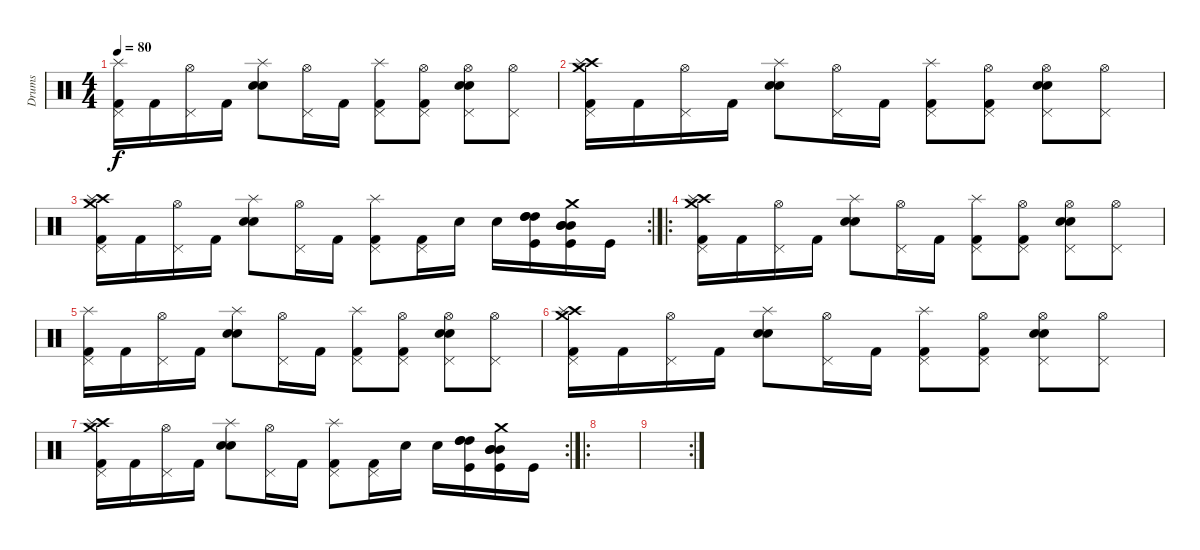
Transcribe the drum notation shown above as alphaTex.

\track ("Drums" "Drums") {instrument percussion}
\staff {score}
\articulation defaults
\ts (4 4)
\tempo 80
\clef neutral
\ks c
("Kick (hit) 2" "Pedal Hi-Hat (hit)" "Splash (hit)").16{dy f} "Kick (hit) 2".16 ("Pedal Hi-Hat (hit)" "Hi-Hat (open)").16 "Kick (hit) 2".16 ("Snare (hit) 2" "Electric Snare (hit)" "Splash (hit)").8 ("Pedal Hi-Hat (hit)" "Hi-Hat (open)").16 "Kick (hit) 2".16 ("Kick (hit) 2" "Pedal Hi-Hat (hit)" "Splash (hit)").8 ("Kick (hit) 2" "Pedal Hi-Hat (hit)" "Hi-Hat (open)").8 ("Snare (hit) 2" "Electric Snare (hit)" "Pedal Hi-Hat (hit)" "Hi-Hat (open)").8 ("Pedal Hi-Hat (hit)" "Hi-Hat (open)").8 |
("Kick (hit) 2" "Crash high (hit)" "Pedal Hi-Hat (hit)" "Splash (hit)" "Crash medium (hit)").16 "Kick (hit) 2".16 ("Pedal Hi-Hat (hit)" "Hi-Hat (open)").16 "Kick (hit) 2".16 ("Snare (hit) 2" "Electric Snare (hit)" "Splash (hit)").8 ("Pedal Hi-Hat (hit)" "Hi-Hat (open)").16 "Kick (hit) 2".16 ("Kick (hit) 2" "Pedal Hi-Hat (hit)" "Splash (hit)").8 ("Kick (hit) 2" "Pedal Hi-Hat (hit)" "Hi-Hat (open)").8 ("Snare (hit) 2" "Electric Snare (hit)" "Pedal Hi-Hat (hit)" "Hi-Hat (open)").8 ("Pedal Hi-Hat (hit)" "Hi-Hat (open)").8 |
\rc 2
("Kick (hit) 2" "Crash high (hit)" "Pedal Hi-Hat (hit)" "Splash (hit)" "Crash medium (hit)").16 "Kick (hit) 2".16 ("Pedal Hi-Hat (hit)" "Hi-Hat (open)").16 "Kick (hit) 2".16 ("Snare (hit) 2" "Electric Snare (hit)" "Splash (hit)").8 ("Pedal Hi-Hat (hit)" "Hi-Hat (open)").16 "Kick (hit) 2".16 ("Kick (hit) 2" "Pedal Hi-Hat (hit)" "Splash (hit)").8 ("Kick (hit) 2" "Pedal Hi-Hat (hit)").16 "Electric Snare (hit)".16 "Electric Snare (hit)".16 ("Kick (hit)" "High Tom (hit)" "High Tom (hit)" "High Tom (hit)").16 ("Kick (hit)" "Mid Tom (hit)" "Mid Tom (hit)" "Mid Tom (hit)" "Crash medium (hit)").16 "Kick (hit)".16 |
\ro
("Kick (hit) 2" "Crash high (hit)" "Pedal Hi-Hat (hit)" "Splash (hit)" "Crash medium (hit)").16 "Kick (hit) 2".16 ("Pedal Hi-Hat (hit)" "Hi-Hat (open)").16 "Kick (hit) 2".16 ("Snare (hit) 2" "Electric Snare (hit)" "Splash (hit)").8 ("Pedal Hi-Hat (hit)" "Hi-Hat (open)").16 "Kick (hit) 2".16 ("Kick (hit) 2" "Pedal Hi-Hat (hit)" "Splash (hit)").8 ("Kick (hit) 2" "Pedal Hi-Hat (hit)" "Hi-Hat (open)").8 ("Snare (hit) 2" "Electric Snare (hit)" "Pedal Hi-Hat (hit)" "Hi-Hat (open)").8 ("Pedal Hi-Hat (hit)" "Hi-Hat (open)").8 |
("Kick (hit) 2" "Pedal Hi-Hat (hit)" "Splash (hit)").16 "Kick (hit) 2".16 ("Pedal Hi-Hat (hit)" "Hi-Hat (open)").16 "Kick (hit) 2".16 ("Snare (hit) 2" "Electric Snare (hit)" "Splash (hit)").8 ("Pedal Hi-Hat (hit)" "Hi-Hat (open)").16 "Kick (hit) 2".16 ("Kick (hit) 2" "Pedal Hi-Hat (hit)" "Splash (hit)").8 ("Kick (hit) 2" "Pedal Hi-Hat (hit)" "Hi-Hat (open)").8 ("Snare (hit) 2" "Electric Snare (hit)" "Pedal Hi-Hat (hit)" "Hi-Hat (open)").8 ("Pedal Hi-Hat (hit)" "Hi-Hat (open)").8 |
("Kick (hit) 2" "Crash high (hit)" "Pedal Hi-Hat (hit)" "Splash (hit)" "Crash medium (hit)").16 "Kick (hit) 2".16 ("Pedal Hi-Hat (hit)" "Hi-Hat (open)").16 "Kick (hit) 2".16 ("Snare (hit) 2" "Electric Snare (hit)" "Splash (hit)").8 ("Pedal Hi-Hat (hit)" "Hi-Hat (open)").16 "Kick (hit) 2".16 ("Kick (hit) 2" "Pedal Hi-Hat (hit)" "Splash (hit)").8 ("Kick (hit) 2" "Pedal Hi-Hat (hit)" "Hi-Hat (open)").8 ("Snare (hit) 2" "Electric Snare (hit)" "Pedal Hi-Hat (hit)" "Hi-Hat (open)").8 ("Pedal Hi-Hat (hit)" "Hi-Hat (open)").8 |
\rc 2
("Kick (hit) 2" "Crash high (hit)" "Pedal Hi-Hat (hit)" "Splash (hit)" "Crash medium (hit)").16 "Kick (hit) 2".16 ("Pedal Hi-Hat (hit)" "Hi-Hat (open)").16 "Kick (hit) 2".16 ("Snare (hit) 2" "Electric Snare (hit)" "Splash (hit)").8 ("Pedal Hi-Hat (hit)" "Hi-Hat (open)").16 "Kick (hit) 2".16 ("Kick (hit) 2" "Pedal Hi-Hat (hit)" "Splash (hit)").8 ("Kick (hit) 2" "Pedal Hi-Hat (hit)").16 "Electric Snare (hit)".16 "Electric Snare (hit)".16 ("Kick (hit)" "High Tom (hit)" "High Tom (hit)" "High Tom (hit)").16 ("Kick (hit)" "Mid Tom (hit)" "Mid Tom (hit)" "Mid Tom (hit)" "Crash medium (hit)").16 "Kick (hit)".16 |
\ro
|
\rc 2
